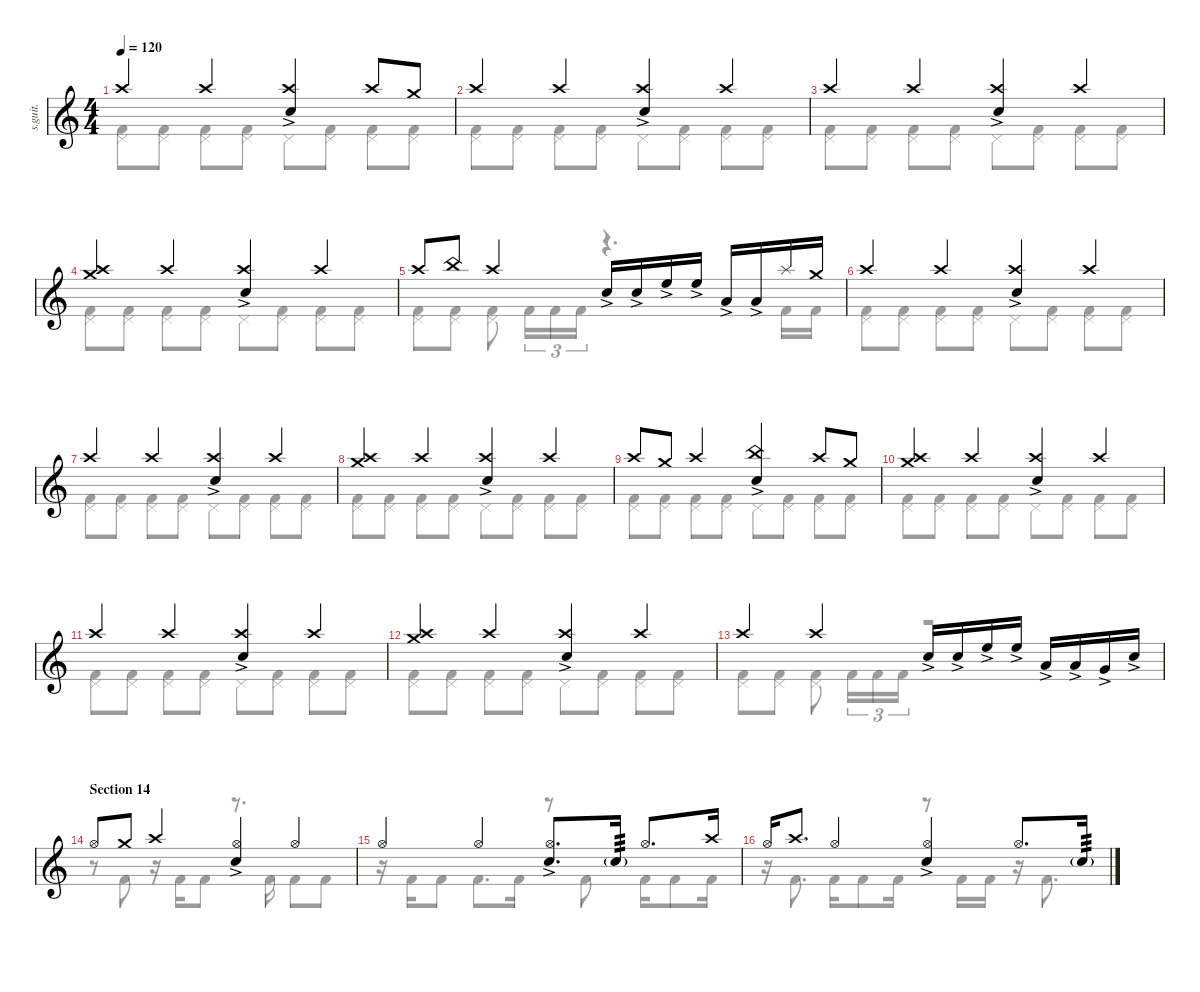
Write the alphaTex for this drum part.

\defaultSystemsLayout 4
\hideDynamics
\bracketExtendMode nobrackets
\track ("Matt Halpern" "s.guit.") {instrument percussion}
\staff {score}
\articulation defaults
\voice
\ts (4 4)
\tempo 120
\clef g2
\ks c "Crash high (hit)".4{lyrics (0 "") lyrics (1 "") lyrics (2 "") lyrics (3 "") lyrics (4 "") dy f} "Crash high (hit)".4{lyrics (0 "") lyrics (1 "") lyrics (2 "") lyrics (3 "") lyrics (4 "")}
("Crash high (hit)" "Snare (hit) 2"{ac}).4{lyrics (0 "") lyrics (1 "") lyrics (2 "") lyrics (3 "") lyrics (4 "")} "Crash high (hit)".8{lyrics (0 "") lyrics (1 "") lyrics (2 "") lyrics (3 "") lyrics (4 "")} "Crash medium (hit)".8{lyrics (0 "") lyrics (1 "") lyrics (2 "") lyrics (3 "") lyrics (4 "")} |
"Crash high (hit)".4{lyrics (0 "") lyrics (1 "") lyrics (2 "") lyrics (3 "") lyrics (4 "")} "Crash high (hit)".4{lyrics (0 "") lyrics (1 "") lyrics (2 "") lyrics (3 "") lyrics (4 "")} ("Crash high (hit)" "Snare (hit) 2"{ac}).4{lyrics (0 "") lyrics (1 "") lyrics (2 "") lyrics (3 "") lyrics (4 "")} "Crash high (hit)".4{lyrics (0 "") lyrics (1 "") lyrics (2 "") lyrics (3 "") lyrics (4 "")} |
"Crash high (hit)".4{lyrics (0 "") lyrics (1 "") lyrics (2 "") lyrics (3 "") lyrics (4 "")} "Crash high (hit)".4{lyrics (0 "") lyrics (1 "") lyrics (2 "") lyrics (3 "") lyrics (4 "")} ("Crash high (hit)" "Snare (hit) 2"{ac}).4{lyrics (0 "") lyrics (1 "") lyrics (2 "") lyrics (3 "") lyrics (4 "")} "Crash high (hit)".4{lyrics (0 "") lyrics (1 "") lyrics (2 "") lyrics (3 "") lyrics (4 "")} |
("Crash high (hit)" "Crash medium (hit)").4{lyrics (0 "") lyrics (1 "") lyrics (2 "") lyrics (3 "") lyrics (4 "")} "Crash high (hit)".4{lyrics (0 "") lyrics (1 "") lyrics (2 "") lyrics (3 "") lyrics (4 "")} ("Crash high (hit)" "Snare (hit) 2"{ac}).4{lyrics (0 "") lyrics (1 "") lyrics (2 "") lyrics (3 "") lyrics (4 "")} "Crash high (hit)".4{lyrics (0 "") lyrics (1 "") lyrics (2 "") lyrics (3 "") lyrics (4 "")} |
"Crash high (hit)".8{lyrics (0 "") lyrics (1 "") lyrics (2 "") lyrics (3 "") lyrics (4 "")} "China (hit)".8{lyrics (0 "") lyrics (1 "") lyrics (2 "") lyrics (3 "") lyrics (4 "")} "Crash high (hit)".4{lyrics (0 "") lyrics (1 "") lyrics (2 "") lyrics (3 "") lyrics (4 "")} "Snare (hit) 2"{ac}.16{lyrics (0 "") lyrics (1 "") lyrics (2 "") lyrics (3 "") lyrics (4 "")} "Snare (hit) 2"{ac}.16{lyrics (0 "") lyrics (1 "") lyrics (2 "") lyrics (3 "") lyrics (4 "")} "High Floor Tom (hit)"{ac}.16{lyrics (0 "") lyrics (1 "") lyrics (2 "") lyrics (3 "") lyrics (4 "")} "High Floor Tom (hit)"{ac}.16{lyrics (0 "") lyrics (1 "") lyrics (2 "") lyrics (3 "") lyrics (4 "")} "Low Tom (hit)"{ac}.16{lyrics (0 "") lyrics (1 "") lyrics (2 "") lyrics (3 "") lyrics (4 "")} "Low Tom (hit)"{ac}.16{lyrics (0 "") lyrics (1 "") lyrics (2 "") lyrics (3 "") lyrics (4 "")} "Splash (hit)".16{lyrics (0 "") lyrics (1 "") lyrics (2 "") lyrics (3 "") lyrics (4 "")} "Crash medium (hit)".16{lyrics (0 "") lyrics (1 "") lyrics (2 "") lyrics (3 "") lyrics (4 "")} |
"Crash high (hit)".4{lyrics (0 "") lyrics (1 "") lyrics (2 "") lyrics (3 "") lyrics (4 "")} "Crash high (hit)".4{lyrics (0 "") lyrics (1 "") lyrics (2 "") lyrics (3 "") lyrics (4 "")} ("Crash high (hit)" "Snare (hit) 2"{ac}).4{lyrics (0 "") lyrics (1 "") lyrics (2 "") lyrics (3 "") lyrics (4 "")} "Crash high (hit)".4{lyrics (0 "") lyrics (1 "") lyrics (2 "") lyrics (3 "") lyrics (4 "")} |
"Crash high (hit)".4{lyrics (0 "") lyrics (1 "") lyrics (2 "") lyrics (3 "") lyrics (4 "")} "Crash high (hit)".4{lyrics (0 "") lyrics (1 "") lyrics (2 "") lyrics (3 "") lyrics (4 "")} ("Crash high (hit)" "Snare (hit) 2"{ac}).4{lyrics (0 "") lyrics (1 "") lyrics (2 "") lyrics (3 "") lyrics (4 "")} "Crash high (hit)".4{lyrics (0 "") lyrics (1 "") lyrics (2 "") lyrics (3 "") lyrics (4 "")} |
("Crash medium (hit)" "Crash high (hit)").4{lyrics (0 "") lyrics (1 "") lyrics (2 "") lyrics (3 "") lyrics (4 "")} "Crash high (hit)".4{lyrics (0 "") lyrics (1 "") lyrics (2 "") lyrics (3 "") lyrics (4 "")} ("Crash high (hit)" "Snare (hit) 2"{ac}).4{lyrics (0 "") lyrics (1 "") lyrics (2 "") lyrics (3 "") lyrics (4 "")} "Crash high (hit)".4{lyrics (0 "") lyrics (1 "") lyrics (2 "") lyrics (3 "") lyrics (4 "")} |
"Crash high (hit)".8{lyrics (0 "") lyrics (1 "") lyrics (2 "") lyrics (3 "") lyrics (4 "")} "Crash medium (hit)".8{lyrics (0 "") lyrics (1 "") lyrics (2 "") lyrics (3 "") lyrics (4 "")} "Crash high (hit)".4{lyrics (0 "") lyrics (1 "") lyrics (2 "") lyrics (3 "") lyrics (4 "")} ("Snare (hit) 2"{ac} "China (hit)").4{lyrics (0 "") lyrics (1 "") lyrics (2 "") lyrics (3 "") lyrics (4 "")} "Crash high (hit)".8{lyrics (0 "") lyrics (1 "") lyrics (2 "") lyrics (3 "") lyrics (4 "")} "Crash medium (hit)".8{lyrics (0 "") lyrics (1 "") lyrics (2 "") lyrics (3 "") lyrics (4 "")} |
("Crash high (hit)" "Crash medium (hit)").4{lyrics (0 "") lyrics (1 "") lyrics (2 "") lyrics (3 "") lyrics (4 "")} "Crash high (hit)".4{lyrics (0 "") lyrics (1 "") lyrics (2 "") lyrics (3 "") lyrics (4 "")} ("Crash high (hit)" "Snare (hit) 2"{ac}).4{lyrics (0 "") lyrics (1 "") lyrics (2 "") lyrics (3 "") lyrics (4 "")} "Crash high (hit)".4{lyrics (0 "") lyrics (1 "") lyrics (2 "") lyrics (3 "") lyrics (4 "")} |
"Crash high (hit)".4{lyrics (0 "") lyrics (1 "") lyrics (2 "") lyrics (3 "") lyrics (4 "")} "Crash high (hit)".4{lyrics (0 "") lyrics (1 "") lyrics (2 "") lyrics (3 "") lyrics (4 "")} ("Crash high (hit)" "Snare (hit) 2"{ac}).4{lyrics (0 "") lyrics (1 "") lyrics (2 "") lyrics (3 "") lyrics (4 "")} "Crash high (hit)".4{lyrics (0 "") lyrics (1 "") lyrics (2 "") lyrics (3 "") lyrics (4 "")} |
("Crash high (hit)" "Crash medium (hit)").4{lyrics (0 "") lyrics (1 "") lyrics (2 "") lyrics (3 "") lyrics (4 "")} "Crash high (hit)".4{lyrics (0 "") lyrics (1 "") lyrics (2 "") lyrics (3 "") lyrics (4 "")} ("Crash high (hit)" "Snare (hit) 2"{ac}).4{lyrics (0 "") lyrics (1 "") lyrics (2 "") lyrics (3 "") lyrics (4 "")} "Crash high (hit)".4{lyrics (0 "") lyrics (1 "") lyrics (2 "") lyrics (3 "") lyrics (4 "")} |
"Crash high (hit)".4{lyrics (0 "") lyrics (1 "") lyrics (2 "") lyrics (3 "") lyrics (4 "")} "Crash high (hit)".4{lyrics (0 "") lyrics (1 "") lyrics (2 "") lyrics (3 "") lyrics (4 "")} "Snare (hit) 2"{ac}.16{lyrics (0 "") lyrics (1 "") lyrics (2 "") lyrics (3 "") lyrics (4 "")} "Snare (hit) 2"{ac}.16{lyrics (0 "") lyrics (1 "") lyrics (2 "") lyrics (3 "") lyrics (4 "")} "High Floor Tom (hit)"{ac}.16{lyrics (0 "") lyrics (1 "") lyrics (2 "") lyrics (3 "") lyrics (4 "")} "High Floor Tom (hit)"{ac}.16{lyrics (0 "") lyrics (1 "") lyrics (2 "") lyrics (3 "") lyrics (4 "")} "Low Tom (hit)"{ac}.16{lyrics (0 "") lyrics (1 "") lyrics (2 "") lyrics (3 "") lyrics (4 "")} "Low Tom (hit)"{ac}.16{lyrics (0 "") lyrics (1 "") lyrics (2 "") lyrics (3 "") lyrics (4 "")} "Very Low Tom (hit)"{ac}.16{lyrics (0 "") lyrics (1 "") lyrics (2 "") lyrics (3 "") lyrics (4 "")} "Snare (hit) 2"{ac}.16{lyrics (0 "") lyrics (1 "") lyrics (2 "") lyrics (3 "") lyrics (4 "")} |
\section ("" "Section 14")
"Hi-Hat (open)".8{lyrics (0 "") lyrics (1 "") lyrics (2 "") lyrics (3 "") lyrics (4 "")} "Crash medium (hit)".8{lyrics (0 "") lyrics (1 "") lyrics (2 "") lyrics (3 "") lyrics (4 "")} "Crash high (hit)".4{lyrics (0 "") lyrics (1 "") lyrics (2 "") lyrics (3 "") lyrics (4 "")} ("Hi-Hat (open)" "Snare (hit) 2"{ac}).4{lyrics (0 "") lyrics (1 "") lyrics (2 "") lyrics (3 "") lyrics (4 "")} "Hi-Hat (open)".4{lyrics (0 "") lyrics (1 "") lyrics (2 "") lyrics (3 "") lyrics (4 "")} |
"Hi-Hat (open)".4{lyrics (0 "") lyrics (1 "") lyrics (2 "") lyrics (3 "") lyrics (4 "")} "Hi-Hat (open)".4{lyrics (0 "") lyrics (1 "") lyrics (2 "") lyrics (3 "") lyrics (4 "")} ("Hi-Hat (open)" "Snare (hit) 2"{ac}).8{d lyrics (0 "") lyrics (1 "") lyrics (2 "") lyrics (3 "") lyrics (4 "")} "Snare (hit) 2"{g}.16{lyrics (0 "") lyrics (1 "") lyrics (2 "") lyrics (3 "") lyrics (4 "") tp 3} "Hi-Hat (open)".8{d lyrics (0 "") lyrics (1 "") lyrics (2 "") lyrics (3 "") lyrics (4 "")} "Crash high (hit)".16{lyrics (0 "") lyrics (1 "") lyrics (2 "") lyrics (3 "") lyrics (4 "")} |
"Hi-Hat (open)".16{lyrics (0 "") lyrics (1 "") lyrics (2 "") lyrics (3 "") lyrics (4 "")} "Crash high (hit)".8{d lyrics (0 "") lyrics (1 "") lyrics (2 "") lyrics (3 "") lyrics (4 "")} "Hi-Hat (open)".4{lyrics (0 "") lyrics (1 "") lyrics (2 "") lyrics (3 "") lyrics (4 "")} ("Hi-Hat (open)" "Snare (hit) 2"{ac}).4{lyrics (0 "") lyrics (1 "") lyrics (2 "") lyrics (3 "") lyrics (4 "")} "Hi-Hat (open)".8{d lyrics (0 "") lyrics (1 "") lyrics (2 "") lyrics (3 "") lyrics (4 "")} "Snare (hit) 2"{g}.16{lyrics (0 "") lyrics (1 "") lyrics (2 "") lyrics (3 "") lyrics (4 "") tp 3}
\voice
\clef g2
\ottava regular
\simile none
\ks c
("Kick (hit) 2" "Pedal Hi-Hat (hit)").8{lyrics (0 "") lyrics (1 "") lyrics (2 "") lyrics (3 "") lyrics (4 "") dy f} ("Pedal Hi-Hat (hit)" "Kick (hit) 2").8{lyrics (0 "") lyrics (1 "") lyrics (2 "") lyrics (3 "") lyrics (4 "")} ("Pedal Hi-Hat (hit)" "Kick (hit) 2").8{lyrics (0 "") lyrics (1 "") lyrics (2 "") lyrics (3 "") lyrics (4 "")} ("Pedal Hi-Hat (hit)" "Kick (hit) 2").8{lyrics (0 "") lyrics (1 "") lyrics (2 "") lyrics (3 "") lyrics (4 "")} "Pedal Hi-Hat (hit)".8{lyrics (0 "") lyrics (1 "") lyrics (2 "") lyrics (3 "") lyrics (4 "")} ("Pedal Hi-Hat (hit)" "Kick (hit) 2").8{lyrics (0 "") lyrics (1 "") lyrics (2 "") lyrics (3 "") lyrics (4 "")} ("Pedal Hi-Hat (hit)" "Kick (hit) 2").8{lyrics (0 "") lyrics (1 "") lyrics (2 "") lyrics (3 "") lyrics (4 "")} ("Pedal Hi-Hat (hit)" "Kick (hit) 2").8{lyrics (0 "") lyrics (1 "") lyrics (2 "") lyrics (3 "") lyrics (4 "")} |
("Kick (hit) 2" "Pedal Hi-Hat (hit)").8{lyrics (0 "") lyrics (1 "") lyrics (2 "") lyrics (3 "") lyrics (4 "")} ("Pedal Hi-Hat (hit)" "Kick (hit) 2").8{lyrics (0 "") lyrics (1 "") lyrics (2 "") lyrics (3 "") lyrics (4 "")} ("Pedal Hi-Hat (hit)" "Kick (hit) 2").8{lyrics (0 "") lyrics (1 "") lyrics (2 "") lyrics (3 "") lyrics (4 "")} ("Pedal Hi-Hat (hit)" "Kick (hit) 2").8{lyrics (0 "") lyrics (1 "") lyrics (2 "") lyrics (3 "") lyrics (4 "")} "Pedal Hi-Hat (hit)".8{lyrics (0 "") lyrics (1 "") lyrics (2 "") lyrics (3 "") lyrics (4 "")} ("Pedal Hi-Hat (hit)" "Kick (hit) 2").8{lyrics (0 "") lyrics (1 "") lyrics (2 "") lyrics (3 "") lyrics (4 "")} ("Pedal Hi-Hat (hit)" "Kick (hit) 2").8{lyrics (0 "") lyrics (1 "") lyrics (2 "") lyrics (3 "") lyrics (4 "")} ("Pedal Hi-Hat (hit)" "Kick (hit) 2").8{lyrics (0 "") lyrics (1 "") lyrics (2 "") lyrics (3 "") lyrics (4 "")} |
("Kick (hit) 2" "Pedal Hi-Hat (hit)").8{lyrics (0 "") lyrics (1 "") lyrics (2 "") lyrics (3 "") lyrics (4 "")} ("Pedal Hi-Hat (hit)" "Kick (hit) 2").8{lyrics (0 "") lyrics (1 "") lyrics (2 "") lyrics (3 "") lyrics (4 "")} ("Pedal Hi-Hat (hit)" "Kick (hit) 2").8{lyrics (0 "") lyrics (1 "") lyrics (2 "") lyrics (3 "") lyrics (4 "")} ("Pedal Hi-Hat (hit)" "Kick (hit) 2").8{lyrics (0 "") lyrics (1 "") lyrics (2 "") lyrics (3 "") lyrics (4 "")} "Pedal Hi-Hat (hit)".8{lyrics (0 "") lyrics (1 "") lyrics (2 "") lyrics (3 "") lyrics (4 "")} ("Pedal Hi-Hat (hit)" "Kick (hit) 2").8{lyrics (0 "") lyrics (1 "") lyrics (2 "") lyrics (3 "") lyrics (4 "")} ("Pedal Hi-Hat (hit)" "Kick (hit) 2").8{lyrics (0 "") lyrics (1 "") lyrics (2 "") lyrics (3 "") lyrics (4 "")} ("Pedal Hi-Hat (hit)" "Kick (hit) 2").8{lyrics (0 "") lyrics (1 "") lyrics (2 "") lyrics (3 "") lyrics (4 "")} |
("Kick (hit) 2" "Pedal Hi-Hat (hit)").8{lyrics (0 "") lyrics (1 "") lyrics (2 "") lyrics (3 "") lyrics (4 "")} ("Pedal Hi-Hat (hit)" "Kick (hit) 2").8{lyrics (0 "") lyrics (1 "") lyrics (2 "") lyrics (3 "") lyrics (4 "")} ("Pedal Hi-Hat (hit)" "Kick (hit) 2").8{lyrics (0 "") lyrics (1 "") lyrics (2 "") lyrics (3 "") lyrics (4 "")} ("Pedal Hi-Hat (hit)" "Kick (hit) 2").8{lyrics (0 "") lyrics (1 "") lyrics (2 "") lyrics (3 "") lyrics (4 "")} "Pedal Hi-Hat (hit)".8{lyrics (0 "") lyrics (1 "") lyrics (2 "") lyrics (3 "") lyrics (4 "")} ("Pedal Hi-Hat (hit)" "Kick (hit) 2").8{lyrics (0 "") lyrics (1 "") lyrics (2 "") lyrics (3 "") lyrics (4 "")} ("Pedal Hi-Hat (hit)" "Kick (hit) 2").8{lyrics (0 "") lyrics (1 "") lyrics (2 "") lyrics (3 "") lyrics (4 "")} ("Pedal Hi-Hat (hit)" "Kick (hit) 2").8{lyrics (0 "") lyrics (1 "") lyrics (2 "") lyrics (3 "") lyrics (4 "")} |
("Kick (hit) 2" "Pedal Hi-Hat (hit)").8{lyrics (0 "") lyrics (1 "") lyrics (2 "") lyrics (3 "") lyrics (4 "")} ("Pedal Hi-Hat (hit)" "Kick (hit) 2").8{lyrics (0 "") lyrics (1 "") lyrics (2 "") lyrics (3 "") lyrics (4 "")} ("Pedal Hi-Hat (hit)" "Kick (hit) 2").8{lyrics (0 "") lyrics (1 "") lyrics (2 "") lyrics (3 "") lyrics (4 "")} "Kick (hit) 2".16{tu (3 2) lyrics (0 "") lyrics (1 "") lyrics (2 "") lyrics (3 "") lyrics (4 "")} "Kick (hit) 2".16{tu (3 2) lyrics (0 "") lyrics (1 "") lyrics (2 "") lyrics (3 "") lyrics (4 "")} "Kick (hit) 2".16{tu (3 2) lyrics (0 "") lyrics (1 "") lyrics (2 "") lyrics (3 "") lyrics (4 "")} r.4{d} "Kick (hit) 2".16{lyrics (0 "") lyrics (1 "") lyrics (2 "") lyrics (3 "") lyrics (4 "")} "Kick (hit) 2".16{lyrics (0 "") lyrics (1 "") lyrics (2 "") lyrics (3 "") lyrics (4 "")} |
("Kick (hit) 2" "Pedal Hi-Hat (hit)").8{lyrics (0 "") lyrics (1 "") lyrics (2 "") lyrics (3 "") lyrics (4 "")} ("Pedal Hi-Hat (hit)" "Kick (hit) 2").8{lyrics (0 "") lyrics (1 "") lyrics (2 "") lyrics (3 "") lyrics (4 "")} ("Pedal Hi-Hat (hit)" "Kick (hit) 2").8{lyrics (0 "") lyrics (1 "") lyrics (2 "") lyrics (3 "") lyrics (4 "")} ("Pedal Hi-Hat (hit)" "Kick (hit) 2").8{lyrics (0 "") lyrics (1 "") lyrics (2 "") lyrics (3 "") lyrics (4 "")} "Pedal Hi-Hat (hit)".8{lyrics (0 "") lyrics (1 "") lyrics (2 "") lyrics (3 "") lyrics (4 "")} ("Pedal Hi-Hat (hit)" "Kick (hit) 2").8{lyrics (0 "") lyrics (1 "") lyrics (2 "") lyrics (3 "") lyrics (4 "")} ("Pedal Hi-Hat (hit)" "Kick (hit) 2").8{lyrics (0 "") lyrics (1 "") lyrics (2 "") lyrics (3 "") lyrics (4 "")} ("Pedal Hi-Hat (hit)" "Kick (hit) 2").8{lyrics (0 "") lyrics (1 "") lyrics (2 "") lyrics (3 "") lyrics (4 "")} |
("Kick (hit) 2" "Pedal Hi-Hat (hit)").8{lyrics (0 "") lyrics (1 "") lyrics (2 "") lyrics (3 "") lyrics (4 "")} ("Pedal Hi-Hat (hit)" "Kick (hit) 2").8{lyrics (0 "") lyrics (1 "") lyrics (2 "") lyrics (3 "") lyrics (4 "")} ("Pedal Hi-Hat (hit)" "Kick (hit) 2").8{lyrics (0 "") lyrics (1 "") lyrics (2 "") lyrics (3 "") lyrics (4 "")} ("Pedal Hi-Hat (hit)" "Kick (hit) 2").8{lyrics (0 "") lyrics (1 "") lyrics (2 "") lyrics (3 "") lyrics (4 "")} "Pedal Hi-Hat (hit)".8{lyrics (0 "") lyrics (1 "") lyrics (2 "") lyrics (3 "") lyrics (4 "")} ("Pedal Hi-Hat (hit)" "Kick (hit) 2").8{lyrics (0 "") lyrics (1 "") lyrics (2 "") lyrics (3 "") lyrics (4 "")} ("Pedal Hi-Hat (hit)" "Kick (hit) 2").8{lyrics (0 "") lyrics (1 "") lyrics (2 "") lyrics (3 "") lyrics (4 "")} ("Pedal Hi-Hat (hit)" "Kick (hit) 2").8{lyrics (0 "") lyrics (1 "") lyrics (2 "") lyrics (3 "") lyrics (4 "")} |
("Kick (hit) 2" "Pedal Hi-Hat (hit)").8{lyrics (0 "") lyrics (1 "") lyrics (2 "") lyrics (3 "") lyrics (4 "")} ("Pedal Hi-Hat (hit)" "Kick (hit) 2").8{lyrics (0 "") lyrics (1 "") lyrics (2 "") lyrics (3 "") lyrics (4 "")} ("Pedal Hi-Hat (hit)" "Kick (hit) 2").8{lyrics (0 "") lyrics (1 "") lyrics (2 "") lyrics (3 "") lyrics (4 "")} ("Pedal Hi-Hat (hit)" "Kick (hit) 2").8{lyrics (0 "") lyrics (1 "") lyrics (2 "") lyrics (3 "") lyrics (4 "")} "Pedal Hi-Hat (hit)".8{lyrics (0 "") lyrics (1 "") lyrics (2 "") lyrics (3 "") lyrics (4 "")} ("Pedal Hi-Hat (hit)" "Kick (hit) 2").8{lyrics (0 "") lyrics (1 "") lyrics (2 "") lyrics (3 "") lyrics (4 "")} ("Pedal Hi-Hat (hit)" "Kick (hit) 2").8{lyrics (0 "") lyrics (1 "") lyrics (2 "") lyrics (3 "") lyrics (4 "")} ("Pedal Hi-Hat (hit)" "Kick (hit) 2").8{lyrics (0 "") lyrics (1 "") lyrics (2 "") lyrics (3 "") lyrics (4 "")} |
("Kick (hit) 2" "Pedal Hi-Hat (hit)").8{lyrics (0 "") lyrics (1 "") lyrics (2 "") lyrics (3 "") lyrics (4 "")} ("Pedal Hi-Hat (hit)" "Kick (hit) 2").8{lyrics (0 "") lyrics (1 "") lyrics (2 "") lyrics (3 "") lyrics (4 "")} ("Pedal Hi-Hat (hit)" "Kick (hit) 2").8{lyrics (0 "") lyrics (1 "") lyrics (2 "") lyrics (3 "") lyrics (4 "")} ("Pedal Hi-Hat (hit)" "Kick (hit) 2").8{lyrics (0 "") lyrics (1 "") lyrics (2 "") lyrics (3 "") lyrics (4 "")} "Pedal Hi-Hat (hit)".8{lyrics (0 "") lyrics (1 "") lyrics (2 "") lyrics (3 "") lyrics (4 "")} ("Pedal Hi-Hat (hit)" "Kick (hit) 2").8{lyrics (0 "") lyrics (1 "") lyrics (2 "") lyrics (3 "") lyrics (4 "")} ("Pedal Hi-Hat (hit)" "Kick (hit) 2").8{lyrics (0 "") lyrics (1 "") lyrics (2 "") lyrics (3 "") lyrics (4 "")} ("Pedal Hi-Hat (hit)" "Kick (hit) 2").8{lyrics (0 "") lyrics (1 "") lyrics (2 "") lyrics (3 "") lyrics (4 "")} |
("Kick (hit) 2" "Pedal Hi-Hat (hit)").8{lyrics (0 "") lyrics (1 "") lyrics (2 "") lyrics (3 "") lyrics (4 "")} ("Pedal Hi-Hat (hit)" "Kick (hit) 2").8{lyrics (0 "") lyrics (1 "") lyrics (2 "") lyrics (3 "") lyrics (4 "")} ("Pedal Hi-Hat (hit)" "Kick (hit) 2").8{lyrics (0 "") lyrics (1 "") lyrics (2 "") lyrics (3 "") lyrics (4 "")} ("Pedal Hi-Hat (hit)" "Kick (hit) 2").8{lyrics (0 "") lyrics (1 "") lyrics (2 "") lyrics (3 "") lyrics (4 "")} "Pedal Hi-Hat (hit)".8{lyrics (0 "") lyrics (1 "") lyrics (2 "") lyrics (3 "") lyrics (4 "")} ("Pedal Hi-Hat (hit)" "Kick (hit) 2").8{lyrics (0 "") lyrics (1 "") lyrics (2 "") lyrics (3 "") lyrics (4 "")} ("Pedal Hi-Hat (hit)" "Kick (hit) 2").8{lyrics (0 "") lyrics (1 "") lyrics (2 "") lyrics (3 "") lyrics (4 "")} ("Pedal Hi-Hat (hit)" "Kick (hit) 2").8{lyrics (0 "") lyrics (1 "") lyrics (2 "") lyrics (3 "") lyrics (4 "")} |
("Kick (hit) 2" "Pedal Hi-Hat (hit)").8{lyrics (0 "") lyrics (1 "") lyrics (2 "") lyrics (3 "") lyrics (4 "")} ("Pedal Hi-Hat (hit)" "Kick (hit) 2").8{lyrics (0 "") lyrics (1 "") lyrics (2 "") lyrics (3 "") lyrics (4 "")} ("Pedal Hi-Hat (hit)" "Kick (hit) 2").8{lyrics (0 "") lyrics (1 "") lyrics (2 "") lyrics (3 "") lyrics (4 "")} ("Pedal Hi-Hat (hit)" "Kick (hit) 2").8{lyrics (0 "") lyrics (1 "") lyrics (2 "") lyrics (3 "") lyrics (4 "")} "Pedal Hi-Hat (hit)".8{lyrics (0 "") lyrics (1 "") lyrics (2 "") lyrics (3 "") lyrics (4 "")} ("Pedal Hi-Hat (hit)" "Kick (hit) 2").8{lyrics (0 "") lyrics (1 "") lyrics (2 "") lyrics (3 "") lyrics (4 "")} ("Pedal Hi-Hat (hit)" "Kick (hit) 2").8{lyrics (0 "") lyrics (1 "") lyrics (2 "") lyrics (3 "") lyrics (4 "")} ("Pedal Hi-Hat (hit)" "Kick (hit) 2").8{lyrics (0 "") lyrics (1 "") lyrics (2 "") lyrics (3 "") lyrics (4 "")} |
("Kick (hit) 2" "Pedal Hi-Hat (hit)").8{lyrics (0 "") lyrics (1 "") lyrics (2 "") lyrics (3 "") lyrics (4 "")} ("Pedal Hi-Hat (hit)" "Kick (hit) 2").8{lyrics (0 "") lyrics (1 "") lyrics (2 "") lyrics (3 "") lyrics (4 "")} ("Pedal Hi-Hat (hit)" "Kick (hit) 2").8{lyrics (0 "") lyrics (1 "") lyrics (2 "") lyrics (3 "") lyrics (4 "")} ("Pedal Hi-Hat (hit)" "Kick (hit) 2").8{lyrics (0 "") lyrics (1 "") lyrics (2 "") lyrics (3 "") lyrics (4 "")} "Pedal Hi-Hat (hit)".8{lyrics (0 "") lyrics (1 "") lyrics (2 "") lyrics (3 "") lyrics (4 "")} ("Pedal Hi-Hat (hit)" "Kick (hit) 2").8{lyrics (0 "") lyrics (1 "") lyrics (2 "") lyrics (3 "") lyrics (4 "")} ("Pedal Hi-Hat (hit)" "Kick (hit) 2").8{lyrics (0 "") lyrics (1 "") lyrics (2 "") lyrics (3 "") lyrics (4 "")} ("Pedal Hi-Hat (hit)" "Kick (hit) 2").8{lyrics (0 "") lyrics (1 "") lyrics (2 "") lyrics (3 "") lyrics (4 "")} |
("Kick (hit) 2" "Pedal Hi-Hat (hit)").8{lyrics (0 "") lyrics (1 "") lyrics (2 "") lyrics (3 "") lyrics (4 "")} ("Pedal Hi-Hat (hit)" "Kick (hit) 2").8{lyrics (0 "") lyrics (1 "") lyrics (2 "") lyrics (3 "") lyrics (4 "")} ("Pedal Hi-Hat (hit)" "Kick (hit) 2").8{lyrics (0 "") lyrics (1 "") lyrics (2 "") lyrics (3 "") lyrics (4 "")} "Kick (hit) 2".16{tu (3 2) lyrics (0 "") lyrics (1 "") lyrics (2 "") lyrics (3 "") lyrics (4 "")} "Kick (hit) 2".16{tu (3 2) lyrics (0 "") lyrics (1 "") lyrics (2 "") lyrics (3 "") lyrics (4 "")} "Kick (hit) 2".16{tu (3 2) lyrics (0 "") lyrics (1 "") lyrics (2 "") lyrics (3 "") lyrics (4 "")} r.2 |
r.8 "Kick (hit) 2".8{lyrics (0 "") lyrics (1 "") lyrics (2 "") lyrics (3 "") lyrics (4 "")} r.16 "Kick (hit) 2".16{lyrics (0 "") lyrics (1 "") lyrics (2 "") lyrics (3 "") lyrics (4 "")} "Kick (hit) 2".8{lyrics (0 "") lyrics (1 "") lyrics (2 "") lyrics (3 "") lyrics (4 "")} r.8{d} "Kick (hit) 2".16{lyrics (0 "") lyrics (1 "") lyrics (2 "") lyrics (3 "") lyrics (4 "")} "Kick (hit) 2".8{lyrics (0 "") lyrics (1 "") lyrics (2 "") lyrics (3 "") lyrics (4 "")} "Kick (hit) 2".8{lyrics (0 "") lyrics (1 "") lyrics (2 "") lyrics (3 "") lyrics (4 "")} |
r.16 "Kick (hit) 2".16{lyrics (0 "") lyrics (1 "") lyrics (2 "") lyrics (3 "") lyrics (4 "")} "Kick (hit) 2".8{lyrics (0 "") lyrics (1 "") lyrics (2 "") lyrics (3 "") lyrics (4 "")} "Kick (hit) 2".8{d lyrics (0 "") lyrics (1 "") lyrics (2 "") lyrics (3 "") lyrics (4 "")} "Kick (hit) 2".16{lyrics (0 "") lyrics (1 "") lyrics (2 "") lyrics (3 "") lyrics (4 "")} r.8 "Kick (hit) 2".8{lyrics (0 "") lyrics (1 "") lyrics (2 "") lyrics (3 "") lyrics (4 "")} "Kick (hit) 2".16{lyrics (0 "") lyrics (1 "") lyrics (2 "") lyrics (3 "") lyrics (4 "")} "Kick (hit) 2".8{lyrics (0 "") lyrics (1 "") lyrics (2 "") lyrics (3 "") lyrics (4 "")} "Kick (hit) 2".16{lyrics (0 "") lyrics (1 "") lyrics (2 "") lyrics (3 "") lyrics (4 "")} |
r.16 "Kick (hit) 2".8{d lyrics (0 "") lyrics (1 "") lyrics (2 "") lyrics (3 "") lyrics (4 "")} "Kick (hit) 2".16{lyrics (0 "") lyrics (1 "") lyrics (2 "") lyrics (3 "") lyrics (4 "")} "Kick (hit) 2".8{lyrics (0 "") lyrics (1 "") lyrics (2 "") lyrics (3 "") lyrics (4 "")} "Kick (hit) 2".16{lyrics (0 "") lyrics (1 "") lyrics (2 "") lyrics (3 "") lyrics (4 "")} r.8 "Kick (hit) 2".16{lyrics (0 "") lyrics (1 "") lyrics (2 "") lyrics (3 "") lyrics (4 "")} "Kick (hit) 2".16{lyrics (0 "") lyrics (1 "") lyrics (2 "") lyrics (3 "") lyrics (4 "")} r.16 "Kick (hit) 2".8{d lyrics (0 "") lyrics (1 "") lyrics (2 "") lyrics (3 "") lyrics (4 "")}
